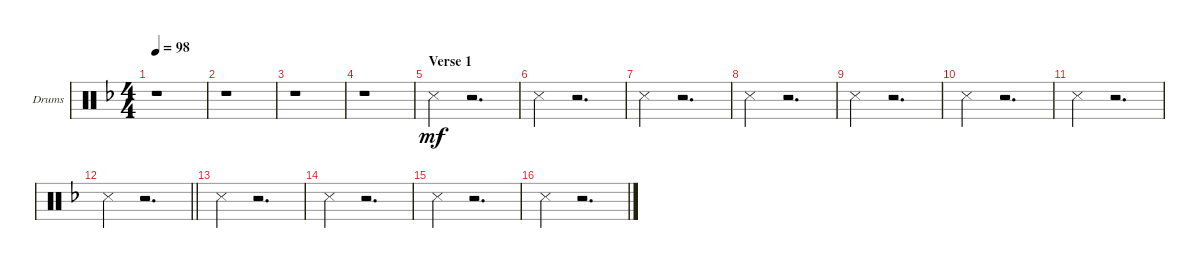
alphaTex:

\defaultSystemsLayout 4
\bracketExtendMode groupsimilarinstruments
\firstSystemTrackNameOrientation horizontal
\otherSystemsTrackNameOrientation horizontal
\track ("Drumkit" "Drums") {instrument percussion}
\staff {score}
\articulation defaults
\ts (4 4)
\tempo 98
\clef neutral
\scale
0.5
\ks dminor
r.1{dy mf} |
\scale
0.25 r.1 |
\scale
0.25 r.1 |
\scale
0.333333 r.1 |
\section ("" "Verse 1")
\scale
0.333333 "Snare (side stick) 3".4 r.2{d} |
\scale
0.333333 "Snare (side stick) 3".4 r.2{d} |
\scale
0.333333 "Snare (side stick) 3".4 r.2{d} |
\scale
0.333333 "Snare (side stick) 3".4 r.2{d} |
\scale
0.333333 "Snare (side stick) 3".4 r.2{d} |
\scale
0.333333 "Snare (side stick) 3".4 r.2{d} |
\scale
0.333333 "Snare (side stick) 3".4 r.2{d} |
\scale
0.333333
\barLineRight lightlight "Snare (side stick) 3".4
r.2{d} |
\scale
0.333333 "Snare (side stick) 3".4 r.2{d} |
\scale
0.333333 "Snare (side stick) 3".4 r.2{d} |
\scale
0.333333 "Snare (side stick) 3".4 r.2{d} |
\scale
0.333333 "Snare (side stick) 3".4 r.2{d}
